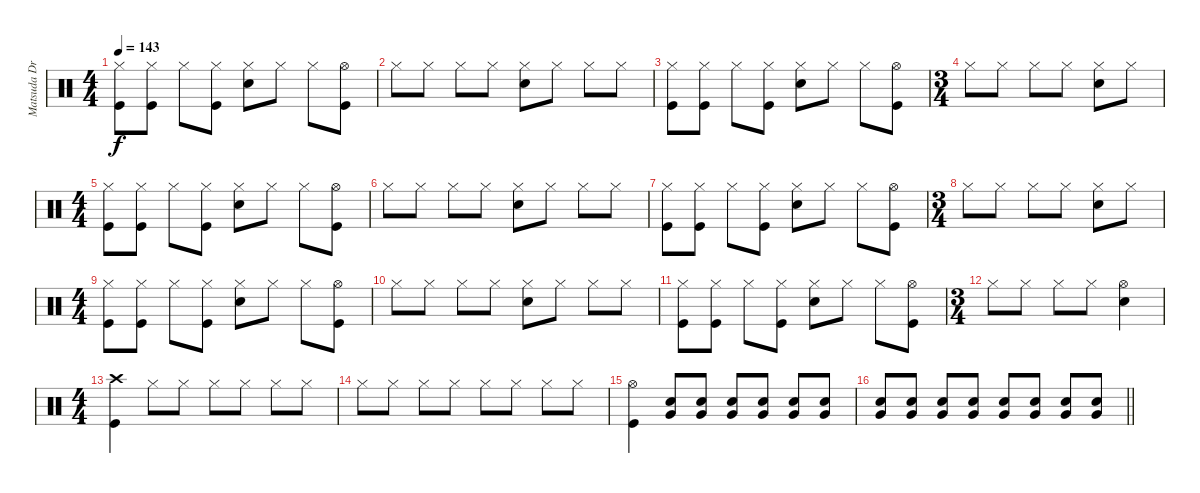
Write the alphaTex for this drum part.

\track ("Matsuda Drums" "Matsuda Dr") {instrument percussion}
\staff {score}
\articulation defaults
\ts (4 4)
\tempo 143
\clef neutral
\ks c
("Hi-Hat (closed)" "Kick (hit)").8{dy f} ("Hi-Hat (closed)" "Kick (hit)").8 "Hi-Hat (closed)".8 ("Hi-Hat (closed)" "Kick (hit)").8 ("Hi-Hat (closed)" "Snare (hit) 2").8 "Hi-Hat (closed)".8 "Hi-Hat (closed)".8 ("Hi-Hat (open)" "Kick (hit)").8 |
"Hi-Hat (closed)".8 "Hi-Hat (closed)".8 "Hi-Hat (closed)".8 "Hi-Hat (closed)".8 ("Hi-Hat (closed)" "Snare (hit) 2").8 "Hi-Hat (closed)".8 "Hi-Hat (closed)".8 "Hi-Hat (closed)".8 |
("Hi-Hat (closed)" "Kick (hit)").8 ("Hi-Hat (closed)" "Kick (hit)").8 "Hi-Hat (closed)".8 ("Hi-Hat (closed)" "Kick (hit)").8 ("Hi-Hat (closed)" "Snare (hit) 2").8 "Hi-Hat (closed)".8 "Hi-Hat (closed)".8 ("Hi-Hat (open)" "Kick (hit)").8 |
\ts (3 4)
"Hi-Hat (closed)".8 "Hi-Hat (closed)".8 "Hi-Hat (closed)".8 "Hi-Hat (closed)".8 ("Hi-Hat (closed)" "Snare (hit) 2").8 "Hi-Hat (closed)".8 |
\ts (4 4)
("Hi-Hat (closed)" "Kick (hit)").8 ("Hi-Hat (closed)" "Kick (hit)").8 "Hi-Hat (closed)".8 ("Hi-Hat (closed)" "Kick (hit)").8 ("Hi-Hat (closed)" "Snare (hit) 2").8 "Hi-Hat (closed)".8 "Hi-Hat (closed)".8 ("Hi-Hat (open)" "Kick (hit)").8 |
"Hi-Hat (closed)".8 "Hi-Hat (closed)".8 "Hi-Hat (closed)".8 "Hi-Hat (closed)".8 ("Hi-Hat (closed)" "Snare (hit) 2").8 "Hi-Hat (closed)".8 "Hi-Hat (closed)".8 "Hi-Hat (closed)".8 |
("Hi-Hat (closed)" "Kick (hit)").8 ("Hi-Hat (closed)" "Kick (hit)").8 "Hi-Hat (closed)".8 ("Hi-Hat (closed)" "Kick (hit)").8 ("Hi-Hat (closed)" "Snare (hit) 2").8 "Hi-Hat (closed)".8 "Hi-Hat (closed)".8 ("Hi-Hat (open)" "Kick (hit)").8 |
\ts (3 4)
"Hi-Hat (closed)".8 "Hi-Hat (closed)".8 "Hi-Hat (closed)".8 "Hi-Hat (closed)".8 ("Hi-Hat (closed)" "Snare (hit) 2").8 "Hi-Hat (closed)".8 |
\ts (4 4)
("Hi-Hat (closed)" "Kick (hit)").8 ("Hi-Hat (closed)" "Kick (hit)").8 "Hi-Hat (closed)".8 ("Hi-Hat (closed)" "Kick (hit)").8 ("Hi-Hat (closed)" "Snare (hit) 2").8 "Hi-Hat (closed)".8 "Hi-Hat (closed)".8 ("Hi-Hat (open)" "Kick (hit)").8 |
"Hi-Hat (closed)".8 "Hi-Hat (closed)".8 "Hi-Hat (closed)".8 "Hi-Hat (closed)".8 ("Hi-Hat (closed)" "Snare (hit) 2").8 "Hi-Hat (closed)".8 "Hi-Hat (closed)".8 "Hi-Hat (closed)".8 |
("Hi-Hat (closed)" "Kick (hit)").8 ("Hi-Hat (closed)" "Kick (hit)").8 "Hi-Hat (closed)".8 ("Hi-Hat (closed)" "Kick (hit)").8 ("Hi-Hat (closed)" "Snare (hit) 2").8 "Hi-Hat (closed)".8 "Hi-Hat (closed)".8 ("Hi-Hat (open)" "Kick (hit)").8 |
\ts (3 4)
"Hi-Hat (closed)".8 "Hi-Hat (closed)".8 "Hi-Hat (closed)".8 "Hi-Hat (closed)".8 ("Hi-Hat (open)" "Snare (hit) 2").4 |
\ts (4 4)
("Crash high (hit)" "Kick (hit)").4 "Hi-Hat (closed)".8 "Hi-Hat (closed)".8 "Hi-Hat (closed)".8 "Hi-Hat (closed)".8 "Hi-Hat (closed)".8 "Hi-Hat (closed)".8 |
"Hi-Hat (closed)".8 "Hi-Hat (closed)".8 "Hi-Hat (closed)".8 "Hi-Hat (closed)".8 "Hi-Hat (closed)".8 "Hi-Hat (closed)".8 "Hi-Hat (closed)".8 "Hi-Hat (closed)".8 |
("Hi-Hat (open)" "Kick (hit)").4 ("Snare (hit) 2" "Very Low Tom (hit)").8 ("Snare (hit) 2" "Very Low Tom (hit)").8 ("Snare (hit) 2" "Very Low Tom (hit)").8 ("Snare (hit) 2" "Very Low Tom (hit)").8 ("Snare (hit) 2" "Very Low Tom (hit)").8 ("Snare (hit) 2" "Very Low Tom (hit)").8 |
\barLineRight lightlight
("Snare (hit) 2" "Very Low Tom (hit)").8 ("Snare (hit) 2" "Very Low Tom (hit)").8 ("Snare (hit) 2" "Very Low Tom (hit)").8 ("Snare (hit) 2" "Very Low Tom (hit)").8 ("Snare (hit) 2" "Very Low Tom (hit)").8 ("Snare (hit) 2" "Very Low Tom (hit)").8 ("Snare (hit) 2" "Very Low Tom (hit)").8 ("Snare (hit) 2" "Very Low Tom (hit)").8
